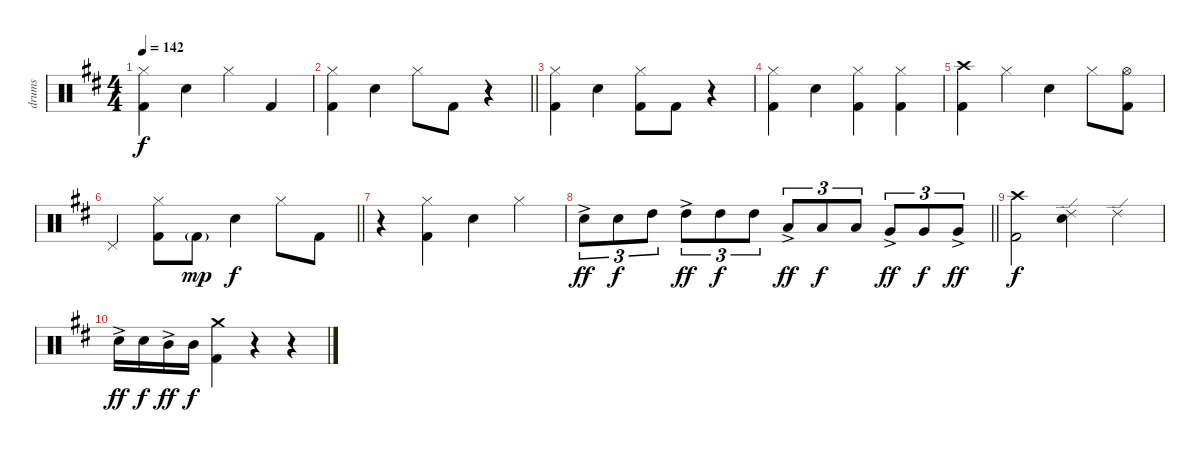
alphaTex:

\track ("drums" "drums") {instrument percussion}
\staff {score}
\articulation defaults
\ts (4 4)
\tempo 142
\clef neutral
\ks d
("Hi-Hat (closed)" "Kick (hit) 2").4{dy f} "Electric Snare (hit)".4 "Hi-Hat (closed)".4 "Kick (hit) 2".4 |
\barLineRight lightlight
("Hi-Hat (closed)" "Kick (hit) 2").4 "Electric Snare (hit)".4 "Hi-Hat (closed)".8 "Kick (hit) 2".8 r.4 |
("Hi-Hat (closed)" "Kick (hit) 2").4 "Electric Snare (hit)".4 ("Hi-Hat (closed)" "Kick (hit) 2").8 "Kick (hit) 2".8 r.4 |
("Hi-Hat (closed)" "Kick (hit) 2").4 "Electric Snare (hit)".4 ("Hi-Hat (closed)" "Kick (hit) 2").4 ("Hi-Hat (closed)" "Kick (hit) 2").4 |
("Crash high (hit)" "Kick (hit) 2").4 "Hi-Hat (closed)".4 "Electric Snare (hit)".4 "Hi-Hat (closed)".8 ("Hi-Hat (open)" "Kick (hit) 2").8 |
\barLineRight lightlight "Pedal Hi-Hat (hit)".4
("Hi-Hat (closed)" "Kick (hit) 2").8 "Kick (hit) 2"{g}.8{dy mp} "Electric Snare (hit)".4{dy f} "Hi-Hat (closed)".8 "Kick (hit) 2".8 |
r.4 ("Hi-Hat (closed)" "Kick (hit) 2").4 "Electric Snare (hit)".4 "Hi-Hat (closed)".4 |
\barLineRight lightlight "Electric Snare (hit)"{ac}.8{tu (3 2) dy ff} "Electric Snare (hit)".8{tu (3 2) dy f} "High Tom (hit)".8{tu (3 2)} "High Tom (hit)"{ac}.8{tu (3 2) dy ff} "High Tom (hit)".8{tu (3 2) dy f} "High Tom (hit)".8{tu (3 2)} "Low Tom (hit)"{ac}.8{tu (3 2) dy ff} "Low Tom (hit)".8{tu (3 2) dy f} "Low Tom (hit)".8{tu (3 2)} "Very Low Tom (hit)"{ac}.8{tu (3 2) dy ff} "Very Low Tom (hit)".8{tu (3 2) dy f} "Very Low Tom (hit)"{ac}.8{tu (3 2) dy ff}
|
("Crash high (hit)" "Kick (hit) 2").2{dy f} ("Ride (edge) 2" "Electric Snare (hit)").4 "Ride (edge) 2".4 |
"Electric Snare (hit)"{ac}.16{dy ff} "Electric Snare (hit)".16{dy f} "Mid Tom (hit)"{ac}.16{dy ff} "Mid Tom (hit)".16{dy f} ("Crash medium (hit)" "Kick (hit) 2").4 r.4 r.4
